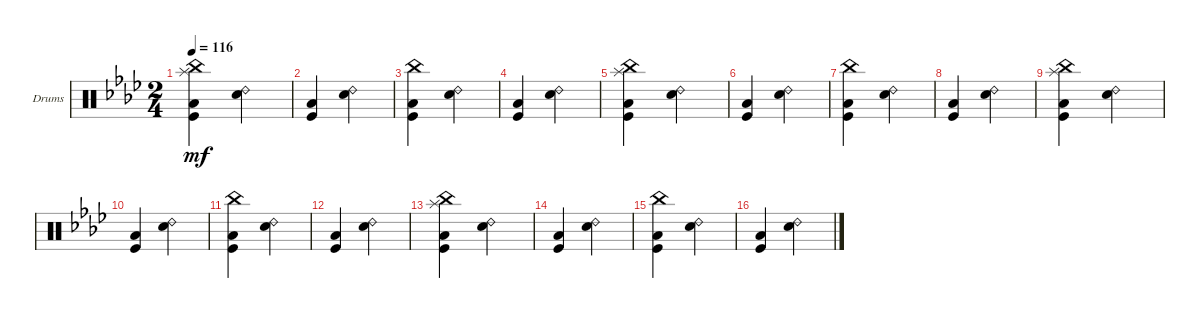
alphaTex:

\defaultSystemsLayout 4
\bracketExtendMode groupsimilarinstruments
\firstSystemTrackNameOrientation horizontal
\otherSystemsTrackNameOrientation horizontal
\track ("Drumkit" "Drums") {instrument percussion}
\staff {score}
\articulation defaults
\ts (2 4)
\tempo 116
\clef neutral
\scale
0.536585
\ks fminor
("Low Tom (hit)" "Kick (hit)" "China (hit)" "Splash (hit)").4{dy mf} ("Snare (hit) 2" "Ride (bell) 2").4 |
\scale
0.231707 ("Low Tom (hit)" "Kick (hit)").4 ("Snare (hit) 2" "Ride (bell) 2").4 |
\scale
0.231707 ("Low Tom (hit)" "Kick (hit)" "China (hit)").4 ("Snare (hit) 2" "Ride (bell) 2").4 |
\scale
0.333333 ("Low Tom (hit)" "Kick (hit)").4 ("Snare (hit) 2" "Ride (bell) 2").4 |
\scale
0.333333 ("Low Tom (hit)" "Kick (hit)" "China (hit)" "Splash (hit)").4 ("Snare (hit) 2" "Ride (bell) 2").4 |
\scale
0.333333 ("Low Tom (hit)" "Kick (hit)").4 ("Snare (hit) 2" "Ride (bell) 2").4 |
\scale
0.333333 ("Low Tom (hit)" "Kick (hit)" "China (hit)").4 ("Snare (hit) 2" "Ride (bell) 2").4 |
\scale
0.333333 ("Low Tom (hit)" "Kick (hit)").4 ("Snare (hit) 2" "Ride (bell) 2").4 |
\scale
0.333333 ("Low Tom (hit)" "Kick (hit)" "China (hit)" "Splash (hit)").4 ("Snare (hit) 2" "Ride (bell) 2").4 |
\scale
0.333333 ("Low Tom (hit)" "Kick (hit)").4 ("Snare (hit) 2" "Ride (bell) 2").4 |
\scale
0.333333 ("Low Tom (hit)" "Kick (hit)" "China (hit)").4 ("Snare (hit) 2" "Ride (bell) 2").4 |
\scale
0.333333 ("Low Tom (hit)" "Kick (hit)").4 ("Snare (hit) 2" "Ride (bell) 2").4 |
\scale
0.333333 ("Low Tom (hit)" "Kick (hit)" "China (hit)" "Splash (hit)").4 ("Snare (hit) 2" "Ride (bell) 2").4 |
\scale
0.333333 ("Low Tom (hit)" "Kick (hit)").4 ("Snare (hit) 2" "Ride (bell) 2").4 |
\scale
0.333333 ("Low Tom (hit)" "Kick (hit)" "China (hit)").4 ("Snare (hit) 2" "Ride (bell) 2").4 |
\scale
0.333333 ("Low Tom (hit)" "Kick (hit)").4 ("Snare (hit) 2" "Ride (bell) 2").4
